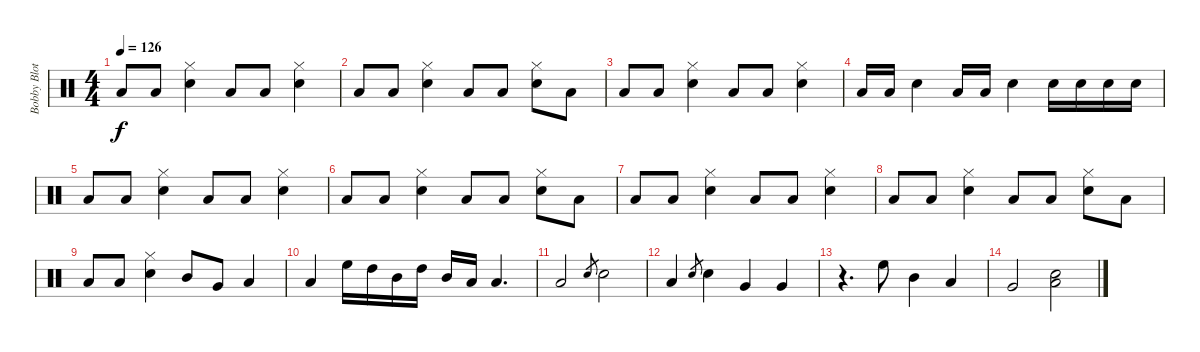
\track ("Bobby Blotzer" "Bobby Blot") {instrument percussion}
\staff {score}
\articulation defaults
\ts (4 4)
\tempo 126
\clef neutral
\ks c "Low Floor Tom (hit)".8{dy f volume 13} "Low Floor Tom (hit)".8
("Hi-Hat (closed)" "Snare (hit) 2").4 "Low Floor Tom (hit)".8 "Low Floor Tom (hit)".8 ("Hi-Hat (closed)" "Snare (hit) 2").4 |
"Low Floor Tom (hit)".8 "Low Floor Tom (hit)".8 ("Hi-Hat (closed)" "Snare (hit) 2").4 "Low Floor Tom (hit)".8 "Low Floor Tom (hit)".8 ("Hi-Hat (closed)" "Snare (hit) 2").8 "Low Floor Tom (hit)".8 |
"Low Floor Tom (hit)".8{volume 13} "Low Floor Tom (hit)".8 ("Hi-Hat (closed)" "Snare (hit) 2").4 "Low Floor Tom (hit)".8 "Low Floor Tom (hit)".8 ("Hi-Hat (closed)" "Snare (hit) 2").4 |
"Low Floor Tom (hit)".16 "Low Floor Tom (hit)".16 "Snare (hit) 2".4 "Low Floor Tom (hit)".16 "Low Floor Tom (hit)".16 "Snare (hit) 2".4 "Snare (hit) 2".16 "Snare (hit) 2".16 "Snare (hit) 2".16 "Snare (hit) 2".16 |
"Low Floor Tom (hit)".8{volume 13} "Low Floor Tom (hit)".8 ("Hi-Hat (closed)" "Snare (hit) 2").4 "Low Floor Tom (hit)".8 "Low Floor Tom (hit)".8 ("Hi-Hat (closed)" "Snare (hit) 2").4 |
"Low Floor Tom (hit)".8 "Low Floor Tom (hit)".8 ("Hi-Hat (closed)" "Snare (hit) 2").4 "Low Floor Tom (hit)".8 "Low Floor Tom (hit)".8 ("Hi-Hat (closed)" "Snare (hit) 2").8 "Low Floor Tom (hit)".8 |
"Low Floor Tom (hit)".8{volume 13} "Low Floor Tom (hit)".8 ("Hi-Hat (closed)" "Snare (hit) 2").4 "Low Floor Tom (hit)".8 "Low Floor Tom (hit)".8 ("Hi-Hat (closed)" "Snare (hit) 2").4 |
"Low Floor Tom (hit)".8 "Low Floor Tom (hit)".8 ("Hi-Hat (closed)" "Snare (hit) 2").4 "Low Floor Tom (hit)".8 "Low Floor Tom (hit)".8 ("Hi-Hat (closed)" "Snare (hit) 2").8 "Low Floor Tom (hit)".8 |
"Low Floor Tom (hit)".8{volume 13} "Low Floor Tom (hit)".8 ("Hi-Hat (closed)" "Snare (hit) 2").4 "Mid Tom (hit)".8 "Very Low Tom (hit)".8 "Low Floor Tom (hit)".4 |
"Low Floor Tom (hit)".4 "High Floor Tom (hit)".16 "High Tom (hit)".16 "Mid Tom (hit)".16 "High Tom (hit)".16 "Mid Tom (hit)".16 "Low Tom (hit)".16 "Low Floor Tom (hit)".4{d} |
"Low Floor Tom (hit)".2 "Snare (hit) 2".8{gr} "Snare (hit) 2".2 |
"Low Floor Tom (hit)".4 "Snare (hit) 2".8{gr} "Snare (hit) 2".4 "Very Low Tom (hit)".4 "Very Low Tom (hit)".4 |
r.4{d} "High Floor Tom (hit)".8 "Mid Tom (hit)".4 "Low Tom (hit)".4 |
"Very Low Tom (hit)".2 ("Snare (hit) 2" "Low Floor Tom (hit)").2
